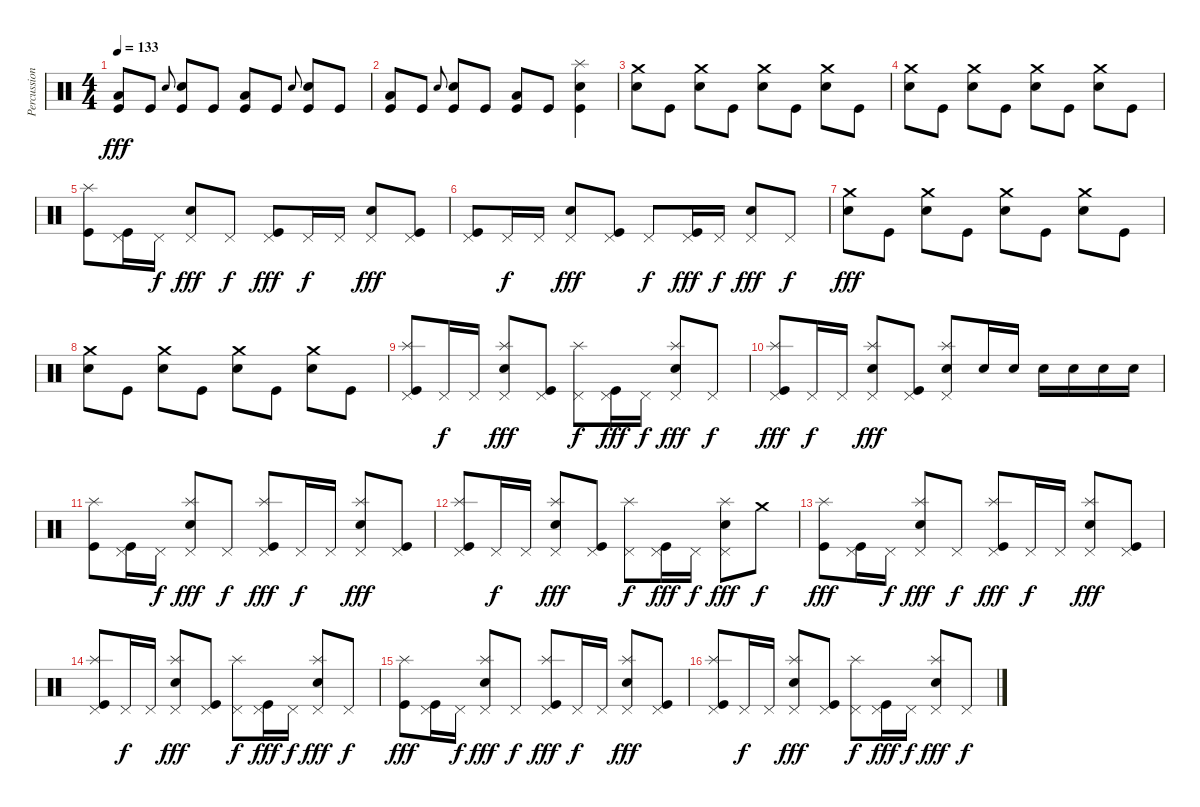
\track ("Percussion" "Percussion") {instrument percussion}
\staff {score}
\articulation defaults
\ts (4 4)
\tempo 133
\clef neutral
\ks c
("Low Floor Tom (hit)" "Kick (hit)").8{dy fff} "Kick (hit)".8 "Snare (hit) 2".8{gr onbeat} ("Snare (hit) 2" "Kick (hit)").8 "Kick (hit)".8 ("Low Floor Tom (hit)" "Kick (hit)").8 "Kick (hit)".8 "Snare (hit) 2".8{gr onbeat} ("Snare (hit) 2" "Kick (hit)").8 "Kick (hit)".8 |
("Low Floor Tom (hit)" "Kick (hit)").8 "Kick (hit)".8 "Snare (hit) 2".8{gr onbeat} ("Snare (hit) 2" "Kick (hit)").8 "Kick (hit)".8 ("Low Floor Tom (hit)" "Kick (hit)").8 "Kick (hit)".8 ("Snare (hit) 2" "Splash (hit)" "Kick (hit)").4 |
("Snare (hit) 2" "Crash medium (hit)").8 "Kick (hit)".8 ("Snare (hit) 2" "Crash medium (hit)").8 "Kick (hit)".8 ("Snare (hit) 2" "Crash medium (hit)").8 "Kick (hit)".8 ("Snare (hit) 2" "Crash medium (hit)").8 "Kick (hit)".8 |
("Snare (hit) 2" "Crash medium (hit)").8 "Kick (hit)".8 ("Snare (hit) 2" "Crash medium (hit)").8 "Kick (hit)".8 ("Snare (hit) 2" "Crash medium (hit)").8 "Kick (hit)".8 ("Snare (hit) 2" "Crash medium (hit)").8 "Kick (hit)".8 |
("Splash (hit)" "Kick (hit)").8 ("Pedal Hi-Hat (hit)" "Kick (hit)").16 "Pedal Hi-Hat (hit)".16{dy f} ("Snare (hit) 2" "Pedal Hi-Hat (hit)").8{dy fff} "Pedal Hi-Hat (hit)".8{dy f} ("Pedal Hi-Hat (hit)" "Kick (hit)").8{dy fff} "Pedal Hi-Hat (hit)".16{dy f} "Pedal Hi-Hat (hit)".16 ("Snare (hit) 2" "Pedal Hi-Hat (hit)").8{dy fff} ("Pedal Hi-Hat (hit)" "Kick (hit)").8 |
("Pedal Hi-Hat (hit)" "Kick (hit)").8 "Pedal Hi-Hat (hit)".16{dy f} "Pedal Hi-Hat (hit)".16 ("Snare (hit) 2" "Pedal Hi-Hat (hit)").8{dy fff} ("Pedal Hi-Hat (hit)" "Kick (hit)").8 "Pedal Hi-Hat (hit)".8{dy f} ("Pedal Hi-Hat (hit)" "Kick (hit)").16{dy fff} "Pedal Hi-Hat (hit)".16{dy f} ("Snare (hit) 2" "Pedal Hi-Hat (hit)").8{dy fff} "Pedal Hi-Hat (hit)".8{dy f} |
("Snare (hit) 2" "Crash medium (hit)").8{dy fff} "Kick (hit)".8 ("Snare (hit) 2" "Crash medium (hit)").8 "Kick (hit)".8 ("Snare (hit) 2" "Crash medium (hit)").8 "Kick (hit)".8 ("Snare (hit) 2" "Crash medium (hit)").8 "Kick (hit)".8 |
("Snare (hit) 2" "Crash medium (hit)").8 "Kick (hit)".8 ("Snare (hit) 2" "Crash medium (hit)").8 "Kick (hit)".8 ("Snare (hit) 2" "Crash medium (hit)").8 "Kick (hit)".8 ("Snare (hit) 2" "Crash medium (hit)").8 "Kick (hit)".8 |
("Pedal Hi-Hat (hit)" "Splash (hit)" "Kick (hit)").8 "Pedal Hi-Hat (hit)".16{dy f} "Pedal Hi-Hat (hit)".16 ("Snare (hit) 2" "Pedal Hi-Hat (hit)" "Splash (hit)").8{dy fff} ("Pedal Hi-Hat (hit)" "Kick (hit)").8 ("Pedal Hi-Hat (hit)" "Splash (hit)").8{dy f} ("Pedal Hi-Hat (hit)" "Kick (hit)").16{dy fff} "Pedal Hi-Hat (hit)".16{dy f} ("Snare (hit) 2" "Pedal Hi-Hat (hit)" "Splash (hit)").8{dy fff} "Pedal Hi-Hat (hit)".8{dy f} |
("Pedal Hi-Hat (hit)" "Splash (hit)" "Kick (hit)").8{dy fff} "Pedal Hi-Hat (hit)".16{dy f} "Pedal Hi-Hat (hit)".16 ("Snare (hit) 2" "Pedal Hi-Hat (hit)" "Splash (hit)").8{dy fff} ("Pedal Hi-Hat (hit)" "Kick (hit)").8 ("Snare (hit) 2" "Pedal Hi-Hat (hit)" "Splash (hit)").8 "Snare (hit) 2".16 "Snare (hit) 2".16 "Snare (hit) 2".16 "Snare (hit) 2".16 "Snare (hit) 2".16 "Snare (hit) 2".16 |
("Splash (hit)" "Kick (hit)").8 ("Pedal Hi-Hat (hit)" "Kick (hit)").16 "Pedal Hi-Hat (hit)".16{dy f} ("Snare (hit) 2" "Pedal Hi-Hat (hit)" "Splash (hit)").8{dy fff} "Pedal Hi-Hat (hit)".8{dy f} ("Pedal Hi-Hat (hit)" "Splash (hit)" "Kick (hit)").8{dy fff} "Pedal Hi-Hat (hit)".16{dy f} "Pedal Hi-Hat (hit)".16 ("Snare (hit) 2" "Pedal Hi-Hat (hit)" "Splash (hit)").8{dy fff} ("Pedal Hi-Hat (hit)" "Kick (hit)").8 |
("Pedal Hi-Hat (hit)" "Splash (hit)" "Kick (hit)").8 "Pedal Hi-Hat (hit)".16{dy f} "Pedal Hi-Hat (hit)".16 ("Snare (hit) 2" "Pedal Hi-Hat (hit)" "Splash (hit)").8{dy fff} ("Pedal Hi-Hat (hit)" "Kick (hit)").8 ("Pedal Hi-Hat (hit)" "Splash (hit)").8{dy f} ("Pedal Hi-Hat (hit)" "Kick (hit)").16{dy fff} "Pedal Hi-Hat (hit)".16{dy f} ("Snare (hit) 2" "Pedal Hi-Hat (hit)" "Splash (hit)").8{dy fff} "Crash medium (hit)".8{dy f} |
("Splash (hit)" "Kick (hit)").8{dy fff} ("Pedal Hi-Hat (hit)" "Kick (hit)").16 "Pedal Hi-Hat (hit)".16{dy f} ("Snare (hit) 2" "Pedal Hi-Hat (hit)" "Splash (hit)").8{dy fff} "Pedal Hi-Hat (hit)".8{dy f} ("Pedal Hi-Hat (hit)" "Splash (hit)" "Kick (hit)").8{dy fff} "Pedal Hi-Hat (hit)".16{dy f} "Pedal Hi-Hat (hit)".16 ("Snare (hit) 2" "Pedal Hi-Hat (hit)" "Splash (hit)").8{dy fff} ("Pedal Hi-Hat (hit)" "Kick (hit)").8 |
("Pedal Hi-Hat (hit)" "Splash (hit)" "Kick (hit)").8 "Pedal Hi-Hat (hit)".16{dy f} "Pedal Hi-Hat (hit)".16 ("Snare (hit) 2" "Pedal Hi-Hat (hit)" "Splash (hit)").8{dy fff} ("Pedal Hi-Hat (hit)" "Kick (hit)").8 ("Pedal Hi-Hat (hit)" "Splash (hit)").8{dy f} ("Pedal Hi-Hat (hit)" "Kick (hit)").16{dy fff} "Pedal Hi-Hat (hit)".16{dy f} ("Snare (hit) 2" "Pedal Hi-Hat (hit)" "Splash (hit)").8{dy fff} "Pedal Hi-Hat (hit)".8{dy f} |
("Splash (hit)" "Kick (hit)").8{dy fff} ("Pedal Hi-Hat (hit)" "Kick (hit)").16 "Pedal Hi-Hat (hit)".16{dy f} ("Snare (hit) 2" "Pedal Hi-Hat (hit)" "Splash (hit)").8{dy fff} "Pedal Hi-Hat (hit)".8{dy f} ("Pedal Hi-Hat (hit)" "Splash (hit)" "Kick (hit)").8{dy fff} "Pedal Hi-Hat (hit)".16{dy f} "Pedal Hi-Hat (hit)".16 ("Snare (hit) 2" "Pedal Hi-Hat (hit)" "Splash (hit)").8{dy fff} ("Pedal Hi-Hat (hit)" "Kick (hit)").8 |
("Pedal Hi-Hat (hit)" "Splash (hit)" "Kick (hit)").8 "Pedal Hi-Hat (hit)".16{dy f} "Pedal Hi-Hat (hit)".16 ("Snare (hit) 2" "Pedal Hi-Hat (hit)" "Splash (hit)").8{dy fff} ("Pedal Hi-Hat (hit)" "Kick (hit)").8 ("Pedal Hi-Hat (hit)" "Splash (hit)").8{dy f} ("Pedal Hi-Hat (hit)" "Kick (hit)").16{dy fff} "Pedal Hi-Hat (hit)".16{dy f} ("Snare (hit) 2" "Pedal Hi-Hat (hit)" "Splash (hit)").8{dy fff} "Pedal Hi-Hat (hit)".8{dy f}
